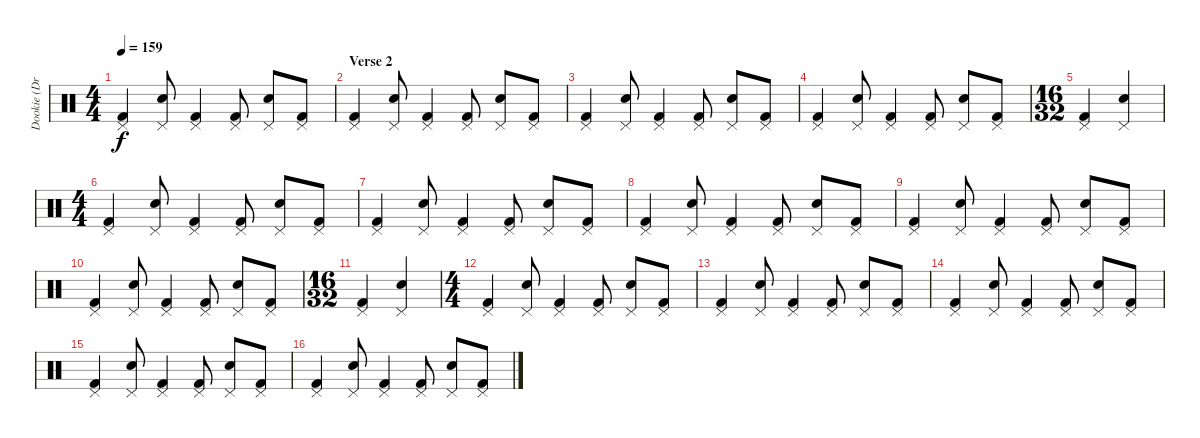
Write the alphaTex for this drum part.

\track ("Dookie (Drums)" "Dookie (Dr") {instrument percussion}
\staff {score}
\articulation defaults
\ts (4 4)
\tempo 159
\clef neutral
\ks c
("Kick (hit) 2" "Pedal Hi-Hat (hit)").4{dy f} ("Electric Snare (hit)" "Pedal Hi-Hat (hit)").8 ("Kick (hit) 2" "Pedal Hi-Hat (hit)").4 ("Kick (hit) 2" "Pedal Hi-Hat (hit)").8 ("Electric Snare (hit)" "Pedal Hi-Hat (hit)").8 ("Kick (hit) 2" "Pedal Hi-Hat (hit)").8 |
\section ("" "Verse 2")
("Kick (hit) 2" "Pedal Hi-Hat (hit)").4 ("Electric Snare (hit)" "Pedal Hi-Hat (hit)").8 ("Kick (hit) 2" "Pedal Hi-Hat (hit)").4 ("Kick (hit) 2" "Pedal Hi-Hat (hit)").8 ("Electric Snare (hit)" "Pedal Hi-Hat (hit)").8 ("Kick (hit) 2" "Pedal Hi-Hat (hit)").8 |
("Kick (hit) 2" "Pedal Hi-Hat (hit)").4 ("Electric Snare (hit)" "Pedal Hi-Hat (hit)").8 ("Kick (hit) 2" "Pedal Hi-Hat (hit)").4 ("Kick (hit) 2" "Pedal Hi-Hat (hit)").8 ("Electric Snare (hit)" "Pedal Hi-Hat (hit)").8 ("Kick (hit) 2" "Pedal Hi-Hat (hit)").8 |
("Kick (hit) 2" "Pedal Hi-Hat (hit)").4 ("Electric Snare (hit)" "Pedal Hi-Hat (hit)").8 ("Kick (hit) 2" "Pedal Hi-Hat (hit)").4 ("Kick (hit) 2" "Pedal Hi-Hat (hit)").8 ("Electric Snare (hit)" "Pedal Hi-Hat (hit)").8 ("Kick (hit) 2" "Pedal Hi-Hat (hit)").8 |
\ts (16 32)
("Kick (hit) 2" "Pedal Hi-Hat (hit)").4 ("Electric Snare (hit)" "Pedal Hi-Hat (hit)").4 |
\ts (4 4)
("Kick (hit) 2" "Pedal Hi-Hat (hit)").4 ("Electric Snare (hit)" "Pedal Hi-Hat (hit)").8 ("Kick (hit) 2" "Pedal Hi-Hat (hit)").4 ("Kick (hit) 2" "Pedal Hi-Hat (hit)").8 ("Electric Snare (hit)" "Pedal Hi-Hat (hit)").8 ("Kick (hit) 2" "Pedal Hi-Hat (hit)").8 |
("Kick (hit) 2" "Pedal Hi-Hat (hit)").4 ("Electric Snare (hit)" "Pedal Hi-Hat (hit)").8 ("Kick (hit) 2" "Pedal Hi-Hat (hit)").4 ("Kick (hit) 2" "Pedal Hi-Hat (hit)").8 ("Electric Snare (hit)" "Pedal Hi-Hat (hit)").8 ("Kick (hit) 2" "Pedal Hi-Hat (hit)").8 |
("Kick (hit) 2" "Pedal Hi-Hat (hit)").4 ("Electric Snare (hit)" "Pedal Hi-Hat (hit)").8 ("Kick (hit) 2" "Pedal Hi-Hat (hit)").4 ("Kick (hit) 2" "Pedal Hi-Hat (hit)").8 ("Electric Snare (hit)" "Pedal Hi-Hat (hit)").8 ("Kick (hit) 2" "Pedal Hi-Hat (hit)").8 |
("Kick (hit) 2" "Pedal Hi-Hat (hit)").4 ("Electric Snare (hit)" "Pedal Hi-Hat (hit)").8 ("Kick (hit) 2" "Pedal Hi-Hat (hit)").4 ("Kick (hit) 2" "Pedal Hi-Hat (hit)").8 ("Electric Snare (hit)" "Pedal Hi-Hat (hit)").8 ("Kick (hit) 2" "Pedal Hi-Hat (hit)").8 |
("Kick (hit) 2" "Pedal Hi-Hat (hit)").4 ("Electric Snare (hit)" "Pedal Hi-Hat (hit)").8 ("Kick (hit) 2" "Pedal Hi-Hat (hit)").4 ("Kick (hit) 2" "Pedal Hi-Hat (hit)").8 ("Electric Snare (hit)" "Pedal Hi-Hat (hit)").8 ("Kick (hit) 2" "Pedal Hi-Hat (hit)").8 |
\ts (16 32)
("Kick (hit) 2" "Pedal Hi-Hat (hit)").4 ("Electric Snare (hit)" "Pedal Hi-Hat (hit)").4 |
\ts (4 4)
("Kick (hit) 2" "Pedal Hi-Hat (hit)").4 ("Electric Snare (hit)" "Pedal Hi-Hat (hit)").8 ("Kick (hit) 2" "Pedal Hi-Hat (hit)").4 ("Kick (hit) 2" "Pedal Hi-Hat (hit)").8 ("Electric Snare (hit)" "Pedal Hi-Hat (hit)").8 ("Kick (hit) 2" "Pedal Hi-Hat (hit)").8 |
("Kick (hit) 2" "Pedal Hi-Hat (hit)").4 ("Electric Snare (hit)" "Pedal Hi-Hat (hit)").8 ("Kick (hit) 2" "Pedal Hi-Hat (hit)").4 ("Kick (hit) 2" "Pedal Hi-Hat (hit)").8 ("Electric Snare (hit)" "Pedal Hi-Hat (hit)").8 ("Kick (hit) 2" "Pedal Hi-Hat (hit)").8 |
("Kick (hit) 2" "Pedal Hi-Hat (hit)").4 ("Electric Snare (hit)" "Pedal Hi-Hat (hit)").8 ("Kick (hit) 2" "Pedal Hi-Hat (hit)").4 ("Kick (hit) 2" "Pedal Hi-Hat (hit)").8 ("Electric Snare (hit)" "Pedal Hi-Hat (hit)").8 ("Kick (hit) 2" "Pedal Hi-Hat (hit)").8 |
("Kick (hit) 2" "Pedal Hi-Hat (hit)").4 ("Electric Snare (hit)" "Pedal Hi-Hat (hit)").8 ("Kick (hit) 2" "Pedal Hi-Hat (hit)").4 ("Kick (hit) 2" "Pedal Hi-Hat (hit)").8 ("Electric Snare (hit)" "Pedal Hi-Hat (hit)").8 ("Kick (hit) 2" "Pedal Hi-Hat (hit)").8 |
("Kick (hit) 2" "Pedal Hi-Hat (hit)").4 ("Electric Snare (hit)" "Pedal Hi-Hat (hit)").8 ("Kick (hit) 2" "Pedal Hi-Hat (hit)").4 ("Kick (hit) 2" "Pedal Hi-Hat (hit)").8 ("Electric Snare (hit)" "Pedal Hi-Hat (hit)").8 ("Kick (hit) 2" "Pedal Hi-Hat (hit)").8
